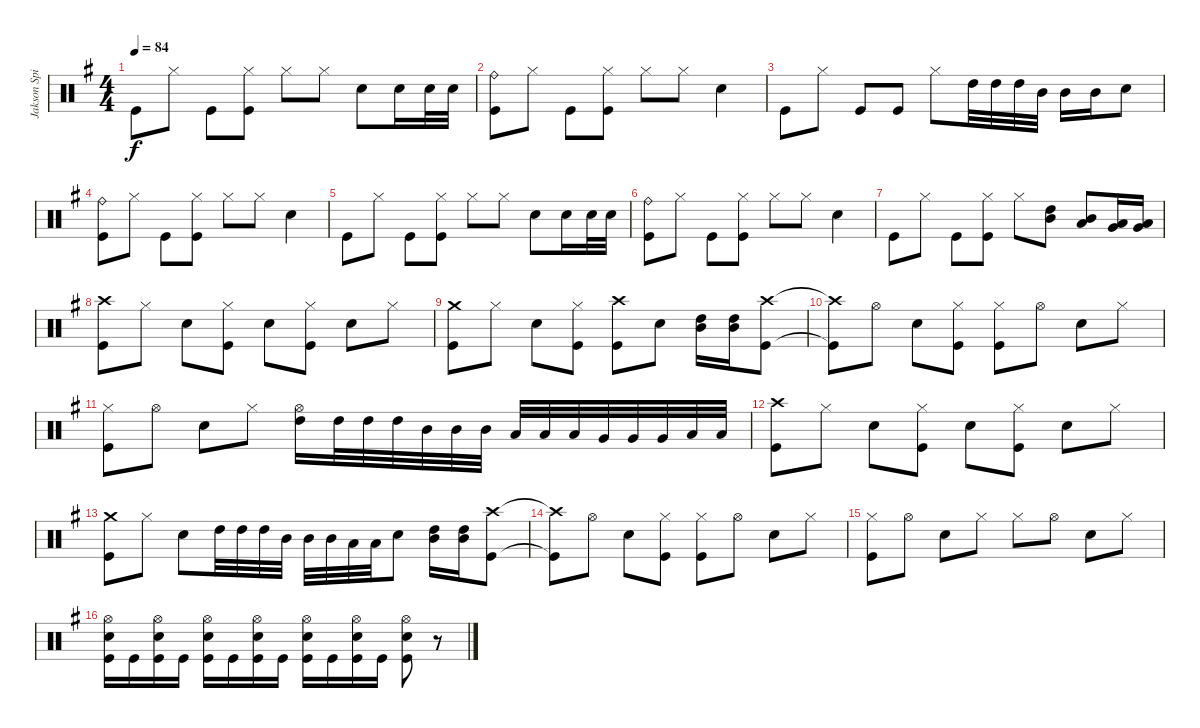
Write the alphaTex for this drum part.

\track ("Jakson Spires Drums" "Jakson Spi") {instrument percussion}
\staff {score}
\articulation defaults
\ts (4 4)
\tempo 84
\clef neutral
\ks g "Kick (hit)".8{dy f} "Hi-Hat (closed)".8 "Kick (hit)".8
("Hi-Hat (closed)" "Kick (hit)").8 "Hi-Hat (closed)".8 "Hi-Hat (closed)".8 "Snare (hit) 2".8 "Snare (hit) 2".16 "Snare (hit) 2".32 "Snare (hit) 2".32 |
("Ride (bell)" "Kick (hit)").8 "Hi-Hat (closed)".8 "Kick (hit)".8 ("Hi-Hat (closed)" "Kick (hit)").8 "Hi-Hat (closed)".8 "Hi-Hat (closed)".8 "Snare (hit) 2".4 |
"Kick (hit)".8 "Hi-Hat (closed)".8 "Kick (hit)".8 "Kick (hit)".8 "Hi-Hat (closed)".8 "High Tom (hit)".32 "High Tom (hit)".32 "High Tom (hit)".32 "Mid Tom (hit)".32 "Mid Tom (hit)".16 "Mid Tom (hit)".16 "Snare (hit) 2".8 |
("Ride (bell)" "Kick (hit)").8 "Hi-Hat (closed)".8 "Kick (hit)".8 ("Hi-Hat (closed)" "Kick (hit)").8 "Hi-Hat (closed)".8 "Hi-Hat (closed)".8 "Snare (hit) 2".4 |
"Kick (hit)".8 "Hi-Hat (closed)".8 "Kick (hit)".8 ("Hi-Hat (closed)" "Kick (hit)").8 "Hi-Hat (closed)".8 "Hi-Hat (closed)".8 "Snare (hit) 2".8 "Snare (hit) 2".16 "Snare (hit) 2".32 "Snare (hit) 2".32 |
("Ride (bell)" "Kick (hit)").8 "Hi-Hat (closed)".8 "Kick (hit)".8 ("Hi-Hat (closed)" "Kick (hit)").8 "Hi-Hat (closed)".8 "Hi-Hat (closed)".8 "Snare (hit) 2".4 |
"Kick (hit)".8 "Hi-Hat (closed)".8 "Kick (hit)".8 ("Hi-Hat (closed)" "Kick (hit)").8 "Hi-Hat (closed)".8 ("High Tom (hit)" "Mid Tom (hit)").8 ("Mid Tom (hit)" "Low Tom (hit)").8 ("Low Tom (hit)" "Very Low Tom (hit)").16 ("Low Tom (hit)" "Very Low Tom (hit)").16 |
("Crash high (hit)" "Kick (hit)").8 "Hi-Hat (closed)".8 "Snare (hit) 2".8 ("Hi-Hat (closed)" "Kick (hit)").8 "Snare (hit) 2".8 ("Hi-Hat (closed)" "Kick (hit)").8 "Snare (hit) 2".8 "Hi-Hat (closed)".8 |
("Crash medium (hit)" "Kick (hit)").8 "Hi-Hat (closed)".8 "Snare (hit) 2".8 ("Hi-Hat (closed)" "Kick (hit)").8 ("Crash high (hit)" "Kick (hit)").8 "Snare (hit) 2".8 ("High Tom (hit)" "Mid Tom (hit)").16 ("High Tom (hit)" "Mid Tom (hit)").16 ("Crash high (hit)" "Kick (hit)").8 |
("Crash high (hit)"{t} "Kick (hit)"{t}).8 "Hi-Hat (open)".8 "Snare (hit) 2".8 ("Hi-Hat (closed)" "Kick (hit)").8 ("Hi-Hat (closed)" "Kick (hit)").8 "Hi-Hat (open)".8 "Snare (hit) 2".8 "Hi-Hat (closed)".8 |
("Hi-Hat (closed)" "Kick (hit)").8 "Hi-Hat (open)".8 "Snare (hit) 2".8 "Hi-Hat (closed)".8 ("High Tom (hit)" "Hi-Hat (open)").16 "High Tom (hit)".32 "High Tom (hit)".32 "High Tom (hit)".32 "Mid Tom (hit)".32 "Mid Tom (hit)".32 "Mid Tom (hit)".32 "Low Tom (hit)".32 "Low Tom (hit)".32 "Low Tom (hit)".32 "Very Low Tom (hit)".32 "Very Low Tom (hit)".32 "Very Low Tom (hit)".32 "Low Floor Tom (hit)".32 "Low Floor Tom (hit)".32 |
("Crash high (hit)" "Kick (hit)").8 "Hi-Hat (closed)".8 "Snare (hit) 2".8 ("Hi-Hat (closed)" "Kick (hit)").8 "Snare (hit) 2".8 ("Hi-Hat (closed)" "Kick (hit)").8 "Snare (hit) 2".8 "Hi-Hat (closed)".8 |
("Crash medium (hit)" "Kick (hit)").8 "Hi-Hat (closed)".8 "Snare (hit) 2".8 "High Tom (hit)".32 "High Tom (hit)".32 "High Tom (hit)".32 "Mid Tom (hit)".32 "Mid Tom (hit)".32 "Mid Tom (hit)".32 "Low Tom (hit)".32 "Low Tom (hit)".32 "Snare (hit) 2".8 ("High Tom (hit)" "Mid Tom (hit)").16 ("High Tom (hit)" "Mid Tom (hit)").16 ("Crash high (hit)" "Kick (hit)").8 |
("Crash high (hit)"{t} "Kick (hit)"{t}).8 "Hi-Hat (open)".8 "Snare (hit) 2".8 ("Hi-Hat (closed)" "Kick (hit)").8 ("Hi-Hat (closed)" "Kick (hit)").8 "Hi-Hat (open)".8 "Snare (hit) 2".8 "Hi-Hat (closed)".8 |
("Hi-Hat (closed)" "Kick (hit)").8 "Hi-Hat (open)".8 "Snare (hit) 2".8 "Hi-Hat (closed)".8 "Hi-Hat (closed)".8 "Hi-Hat (open)".8 "Snare (hit) 2".8 "Hi-Hat (closed)".8 |
("Hi-Hat (open)" "Snare (hit) 2" "Kick (hit)").16 "Kick (hit)".16 ("Hi-Hat (open)" "Snare (hit) 2" "Kick (hit)").16 "Kick (hit)".16 ("Hi-Hat (open)" "Snare (hit) 2" "Kick (hit)").16 "Kick (hit)".16 ("Hi-Hat (open)" "Snare (hit) 2" "Kick (hit)").16 "Kick (hit)".16 ("Hi-Hat (open)" "Snare (hit) 2" "Kick (hit)").16 "Kick (hit)".16 ("Hi-Hat (open)" "Snare (hit) 2" "Kick (hit)").16 "Kick (hit)".16 ("Hi-Hat (open)" "Snare (hit) 2" "Kick (hit)").8 r.8
